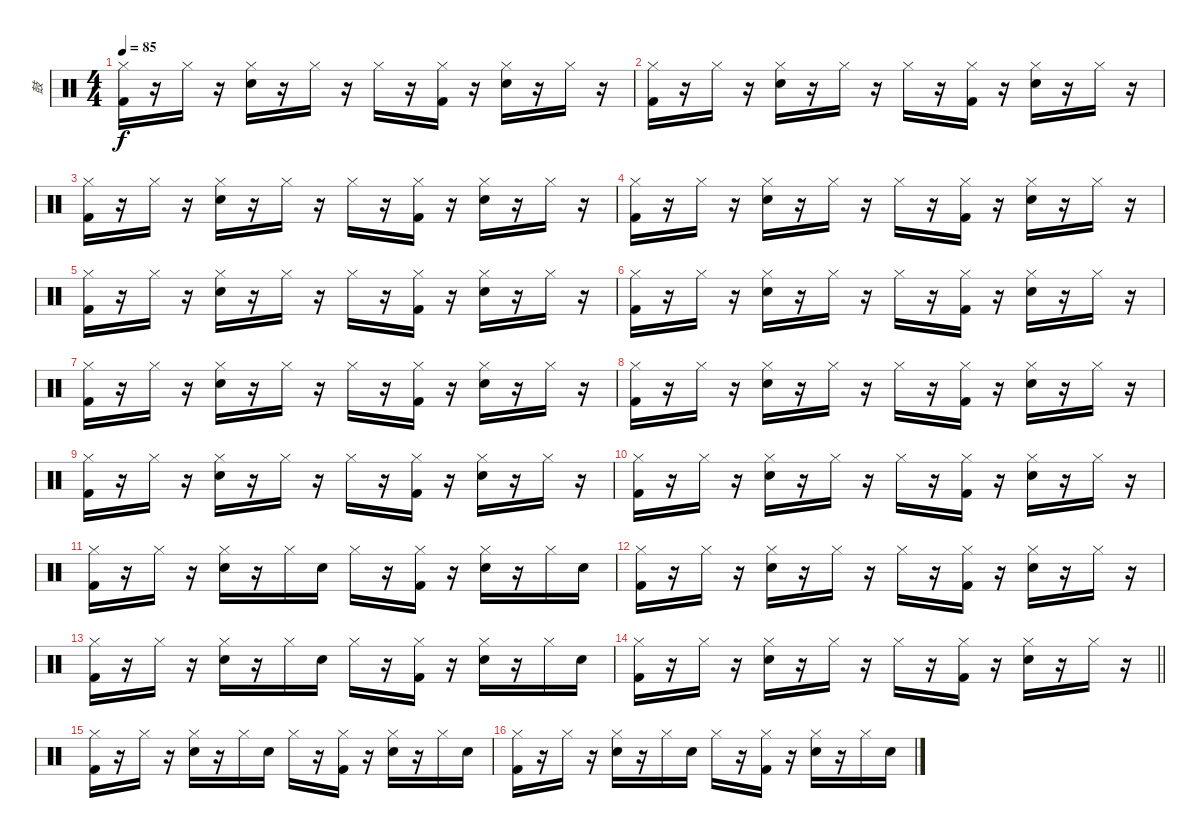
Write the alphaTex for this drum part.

\track ("鼓" "鼓") {instrument percussion}
\staff {score}
\articulation defaults
\ts (4 4)
\tempo 85
\clef neutral
\ks c
("Hi-Hat (closed)" "Kick (hit) 2").16{dy f} r.16 "Hi-Hat (closed)".16 r.16 ("Hi-Hat (closed)" "Snare (hit) 2").16 r.16 "Hi-Hat (closed)".16 r.16 "Hi-Hat (closed)".16 r.16 ("Hi-Hat (closed)" "Kick (hit) 2").16 r.16 ("Hi-Hat (closed)" "Snare (hit) 2").16 r.16 "Hi-Hat (closed)".16 r.16 |
("Hi-Hat (closed)" "Kick (hit) 2").16 r.16 "Hi-Hat (closed)".16 r.16 ("Hi-Hat (closed)" "Snare (hit) 2").16 r.16 "Hi-Hat (closed)".16 r.16 "Hi-Hat (closed)".16 r.16 ("Hi-Hat (closed)" "Kick (hit) 2").16 r.16 ("Hi-Hat (closed)" "Snare (hit) 2").16 r.16 "Hi-Hat (closed)".16 r.16 |
("Hi-Hat (closed)" "Kick (hit) 2").16 r.16 "Hi-Hat (closed)".16 r.16 ("Hi-Hat (closed)" "Snare (hit) 2").16 r.16 "Hi-Hat (closed)".16 r.16 "Hi-Hat (closed)".16 r.16 ("Hi-Hat (closed)" "Kick (hit) 2").16 r.16 ("Hi-Hat (closed)" "Snare (hit) 2").16 r.16 "Hi-Hat (closed)".16 r.16 |
("Hi-Hat (closed)" "Kick (hit) 2").16 r.16 "Hi-Hat (closed)".16 r.16 ("Hi-Hat (closed)" "Snare (hit) 2").16 r.16 "Hi-Hat (closed)".16 r.16 "Hi-Hat (closed)".16 r.16 ("Hi-Hat (closed)" "Kick (hit) 2").16 r.16 ("Hi-Hat (closed)" "Snare (hit) 2").16 r.16 "Hi-Hat (closed)".16 r.16 |
("Hi-Hat (closed)" "Kick (hit) 2").16 r.16 "Hi-Hat (closed)".16 r.16 ("Hi-Hat (closed)" "Snare (hit) 2").16 r.16 "Hi-Hat (closed)".16 r.16 "Hi-Hat (closed)".16 r.16 ("Hi-Hat (closed)" "Kick (hit) 2").16 r.16 ("Hi-Hat (closed)" "Snare (hit) 2").16 r.16 "Hi-Hat (closed)".16 r.16 |
("Hi-Hat (closed)" "Kick (hit) 2").16 r.16 "Hi-Hat (closed)".16 r.16 ("Hi-Hat (closed)" "Snare (hit) 2").16 r.16 "Hi-Hat (closed)".16 r.16 "Hi-Hat (closed)".16 r.16 ("Hi-Hat (closed)" "Kick (hit) 2").16 r.16 ("Hi-Hat (closed)" "Snare (hit) 2").16 r.16 "Hi-Hat (closed)".16 r.16 |
("Hi-Hat (closed)" "Kick (hit) 2").16 r.16 "Hi-Hat (closed)".16 r.16 ("Hi-Hat (closed)" "Snare (hit) 2").16 r.16 "Hi-Hat (closed)".16 r.16 "Hi-Hat (closed)".16 r.16 ("Hi-Hat (closed)" "Kick (hit) 2").16 r.16 ("Hi-Hat (closed)" "Snare (hit) 2").16 r.16 "Hi-Hat (closed)".16 r.16 |
("Hi-Hat (closed)" "Kick (hit) 2").16 r.16 "Hi-Hat (closed)".16 r.16 ("Hi-Hat (closed)" "Snare (hit) 2").16 r.16 "Hi-Hat (closed)".16 r.16 "Hi-Hat (closed)".16 r.16 ("Hi-Hat (closed)" "Kick (hit) 2").16 r.16 ("Hi-Hat (closed)" "Snare (hit) 2").16 r.16 "Hi-Hat (closed)".16 r.16 |
("Hi-Hat (closed)" "Kick (hit) 2").16 r.16 "Hi-Hat (closed)".16 r.16 ("Hi-Hat (closed)" "Snare (hit) 2").16 r.16 "Hi-Hat (closed)".16 r.16 "Hi-Hat (closed)".16 r.16 ("Hi-Hat (closed)" "Kick (hit) 2").16 r.16 ("Hi-Hat (closed)" "Snare (hit) 2").16 r.16 "Hi-Hat (closed)".16 r.16 |
("Hi-Hat (closed)" "Kick (hit) 2").16 r.16 "Hi-Hat (closed)".16 r.16 ("Hi-Hat (closed)" "Snare (hit) 2").16 r.16 "Hi-Hat (closed)".16 r.16 "Hi-Hat (closed)".16 r.16 ("Hi-Hat (closed)" "Kick (hit) 2").16 r.16 ("Hi-Hat (closed)" "Snare (hit) 2").16 r.16 "Hi-Hat (closed)".16 r.16 |
("Hi-Hat (closed)" "Kick (hit) 2").16 r.16 "Hi-Hat (closed)".16 r.16 ("Hi-Hat (closed)" "Snare (hit) 2").16 r.16 "Hi-Hat (closed)".16 "Snare (hit) 2".16 "Hi-Hat (closed)".16 r.16 ("Hi-Hat (closed)" "Kick (hit) 2").16 r.16 ("Hi-Hat (closed)" "Snare (hit) 2").16 r.16 "Hi-Hat (closed)".16 "Snare (hit) 2".16 |
("Hi-Hat (closed)" "Kick (hit) 2").16 r.16 "Hi-Hat (closed)".16 r.16 ("Hi-Hat (closed)" "Snare (hit) 2").16 r.16 "Hi-Hat (closed)".16 r.16 "Hi-Hat (closed)".16 r.16 ("Hi-Hat (closed)" "Kick (hit) 2").16 r.16 ("Hi-Hat (closed)" "Snare (hit) 2").16 r.16 "Hi-Hat (closed)".16 r.16 |
("Hi-Hat (closed)" "Kick (hit) 2").16 r.16 "Hi-Hat (closed)".16 r.16 ("Hi-Hat (closed)" "Snare (hit) 2").16 r.16 "Hi-Hat (closed)".16 "Snare (hit) 2".16 "Hi-Hat (closed)".16 r.16 ("Hi-Hat (closed)" "Kick (hit) 2").16 r.16 ("Hi-Hat (closed)" "Snare (hit) 2").16 r.16 "Hi-Hat (closed)".16 "Snare (hit) 2".16 |
\barLineRight lightlight
("Hi-Hat (closed)" "Kick (hit) 2").16 r.16 "Hi-Hat (closed)".16 r.16 ("Hi-Hat (closed)" "Snare (hit) 2").16 r.16 "Hi-Hat (closed)".16 r.16 "Hi-Hat (closed)".16 r.16 ("Hi-Hat (closed)" "Kick (hit) 2").16 r.16 ("Hi-Hat (closed)" "Snare (hit) 2").16 r.16 "Hi-Hat (closed)".16 r.16 |
("Hi-Hat (closed)" "Kick (hit) 2").16 r.16 "Hi-Hat (closed)".16 r.16 ("Hi-Hat (closed)" "Snare (hit) 2").16 r.16 "Hi-Hat (closed)".16 "Snare (hit) 2".16 "Hi-Hat (closed)".16 r.16 ("Hi-Hat (closed)" "Kick (hit) 2").16 r.16 ("Hi-Hat (closed)" "Snare (hit) 2").16 r.16 "Hi-Hat (closed)".16 "Snare (hit) 2".16 |
("Hi-Hat (closed)" "Kick (hit) 2").16 r.16 "Hi-Hat (closed)".16 r.16 ("Hi-Hat (closed)" "Snare (hit) 2").16 r.16 "Hi-Hat (closed)".16 "Snare (hit) 2".16 "Hi-Hat (closed)".16 r.16 ("Hi-Hat (closed)" "Kick (hit) 2").16 r.16 ("Hi-Hat (closed)" "Snare (hit) 2").16 r.16 "Hi-Hat (closed)".16 "Snare (hit) 2".16
